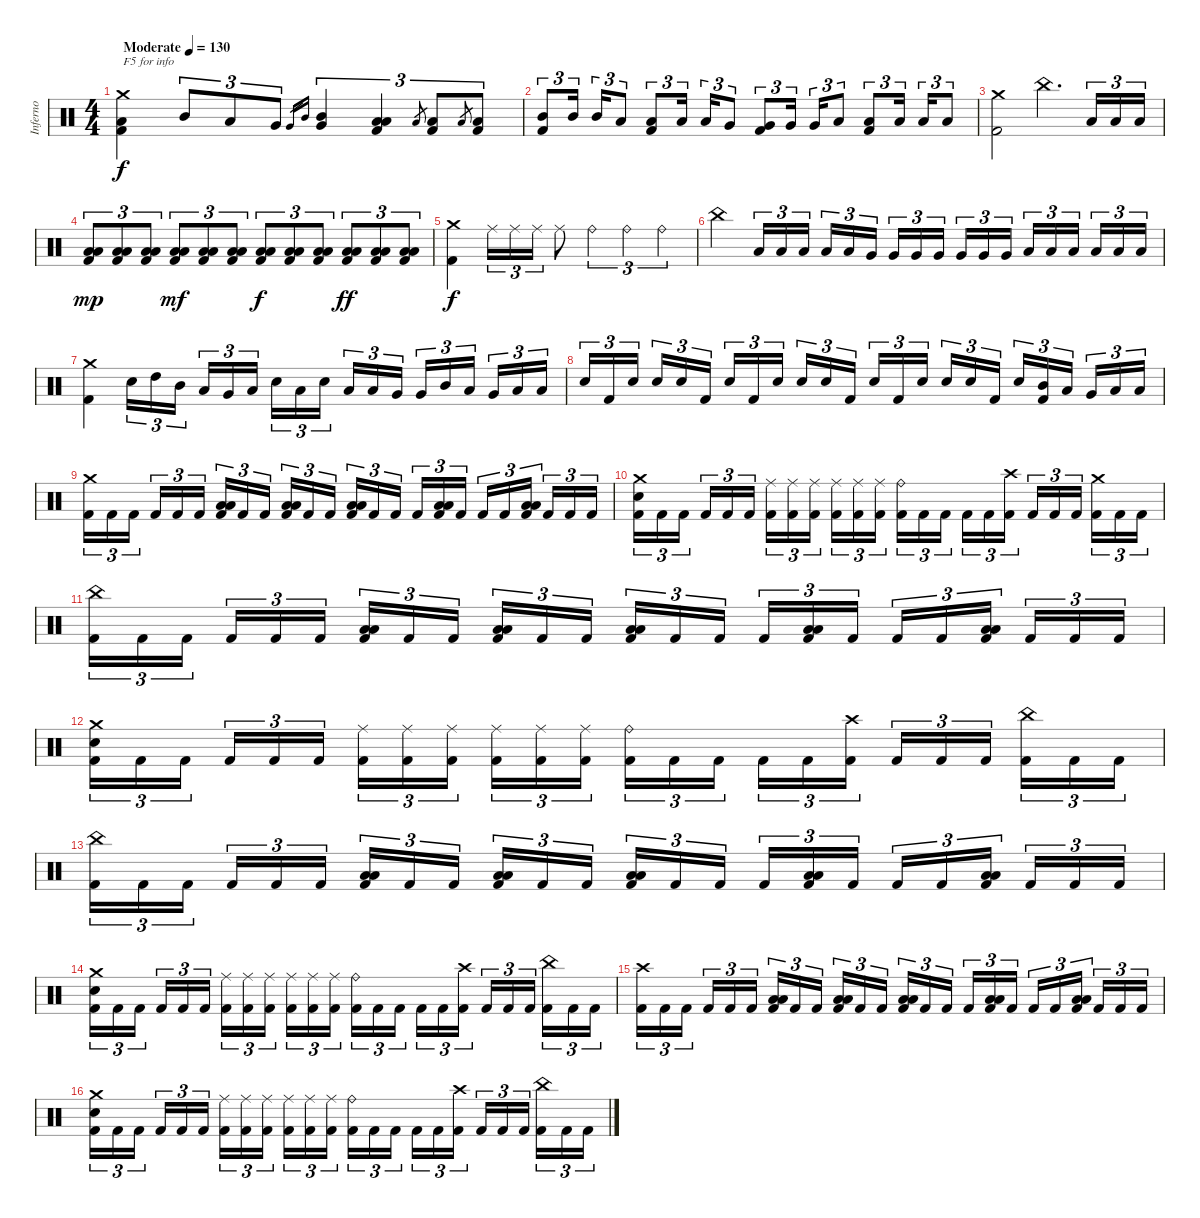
\track ("Inferno" "Inferno") {instrument percussion}
\staff {score}
\articulation defaults
\ts (4 4)
\tempo (130 "Moderate")
\clef neutral
\ks c
("Crash medium (hit)" "Low Floor Tom (hit)" "Kick (hit) 2").4{txt "F5 for info" dy f} "Mid Tom (hit)".8{tu (3 2)} "Low Tom (hit)".8{tu (3 2)} "Very Low Tom (hit)".8{tu (3 2)} "Very Low Tom (hit)".16{gr} "Mid Tom (hit)".16{gr} ("Very Low Tom (hit)" "Mid Tom (hit)").4{tu (3 2)} ("Low Floor Tom (hit)" "Low Tom (hit)" "Kick (hit) 2").4{tu (3 2)} "Low Floor Tom (hit)".8{gr} ("Low Floor Tom (hit)" "Kick (hit) 2").8{tu (3 2)} "Low Floor Tom (hit)".8{gr} ("Low Floor Tom (hit)" "Kick (hit) 2").8{tu (3 2)} |
("Mid Tom (hit)" "Kick (hit) 2").8{tu (3 2)} "Mid Tom (hit)".16{tu (3 2) beam splitsecondary} "Mid Tom (hit)".16{tu (3 2)} "Low Tom (hit)".8{tu (3 2)} ("Low Tom (hit)" "Kick (hit) 2").8{tu (3 2)} "Low Tom (hit)".16{tu (3 2) beam splitsecondary} "Low Tom (hit)".16{tu (3 2)} "Very Low Tom (hit)".8{tu (3 2)} ("Very Low Tom (hit)" "Kick (hit) 2").8{tu (3 2)} "Very Low Tom (hit)".16{tu (3 2) beam splitsecondary} "Very Low Tom (hit)".16{tu (3 2)} "Low Floor Tom (hit)".8{tu (3 2)} ("Low Floor Tom (hit)" "Kick (hit) 2").8{tu (3 2)} "Low Floor Tom (hit)".16{tu (3 2) beam splitsecondary} "Low Floor Tom (hit)".16{tu (3 2)} "Low Floor Tom (hit)".8{tu (3 2)} |
("Crash medium (hit)" "Kick (hit) 2").2 "China (hit)".4{d} "Low Tom (hit)".16{tu (3 2)} "Low Tom (hit)".16{tu (3 2)} "Low Tom (hit)".16{tu (3 2)} |
("Low Tom (hit)" "Low Floor Tom (hit)" "Kick (hit) 2").8{tu (3 2) dy mp} ("Low Tom (hit)" "Low Floor Tom (hit)" "Kick (hit) 2").8{tu (3 2)} ("Low Tom (hit)" "Low Floor Tom (hit)" "Kick (hit) 2").8{tu (3 2)} ("Low Tom (hit)" "Low Floor Tom (hit)" "Kick (hit) 2").8{tu (3 2) dy mf} ("Low Tom (hit)" "Low Floor Tom (hit)" "Kick (hit) 2").8{tu (3 2)} ("Low Tom (hit)" "Low Floor Tom (hit)" "Kick (hit) 2").8{tu (3 2)} ("Low Tom (hit)" "Low Floor Tom (hit)" "Kick (hit) 2").8{tu (3 2) dy f} ("Low Tom (hit)" "Low Floor Tom (hit)" "Kick (hit) 2").8{tu (3 2)} ("Low Tom (hit)" "Low Floor Tom (hit)" "Kick (hit) 2").8{tu (3 2)} ("Low Tom (hit)" "Low Floor Tom (hit)" "Kick (hit) 2").8{tu (3 2) dy ff} ("Low Tom (hit)" "Low Floor Tom (hit)" "Kick (hit) 2").8{tu (3 2)} ("Low Tom (hit)" "Low Floor Tom (hit)" "Kick (hit) 2").8{tu (3 2)} |
("Crash medium (hit)" "Kick (hit) 2").4{dy f} "Ride (middle)".16{tu (3 2)} "Ride (middle)".16{tu (3 2)} "Ride (middle)".16{tu (3 2)} "Ride (middle)".8 "Ride (bell)".4{tu (3 2)} "Ride (bell)".4{tu (3 2)} "Ride (bell)".4{tu (3 2)} |
"China (hit)".4 "Low Tom (hit)".16{tu (3 2)} "Low Tom (hit)".16{tu (3 2)} "Low Tom (hit)".16{tu (3 2) beam splitsecondary} "Low Tom (hit)".16{tu (3 2)} "Low Tom (hit)".16{tu (3 2)} "Very Low Tom (hit)".16{tu (3 2)} "Very Low Tom (hit)".16{tu (3 2)} "Very Low Tom (hit)".16{tu (3 2)} "Very Low Tom (hit)".16{tu (3 2) beam splitsecondary} "Very Low Tom (hit)".16{tu (3 2)} "Very Low Tom (hit)".16{tu (3 2)} "Very Low Tom (hit)".16{tu (3 2)} "Low Floor Tom (hit)".16{tu (3 2)} "Low Floor Tom (hit)".16{tu (3 2)} "Low Floor Tom (hit)".16{tu (3 2) beam splitsecondary} "Low Floor Tom (hit)".16{tu (3 2)} "Low Floor Tom (hit)".16{tu (3 2)} "Low Floor Tom (hit)".16{tu (3 2)} |
("Crash medium (hit)" "Kick (hit) 2").4 "Snare (hit) 2".16{tu (3 2)} "High Tom (hit)".16{tu (3 2)} "Mid Tom (hit)".16{tu (3 2) beam splitsecondary} "Low Tom (hit)".16{tu (3 2)} "Very Low Tom (hit)".16{tu (3 2)} "Low Floor Tom (hit)".16{tu (3 2)} "Snare (hit) 2".16{tu (3 2)} "Low Tom (hit)".16{tu (3 2)} "Snare (hit) 2".16{tu (3 2) beam splitsecondary} "Low Tom (hit)".16{tu (3 2)} "Low Tom (hit)".16{tu (3 2)} "Very Low Tom (hit)".16{tu (3 2)} "Very Low Tom (hit)".16{tu (3 2)} "Mid Tom (hit)".16{tu (3 2)} "Low Tom (hit)".16{tu (3 2) beam splitsecondary} "Very Low Tom (hit)".16{tu (3 2)} "Low Floor Tom (hit)".16{tu (3 2)} "Low Floor Tom (hit)".16{tu (3 2)} |
"Snare (hit) 2".16{tu (3 2)} "Kick (hit) 2".16{tu (3 2)} "Snare (hit) 2".16{tu (3 2) beam splitsecondary} "Snare (hit) 2".16{tu (3 2)} "Snare (hit) 2".16{tu (3 2)} "Kick (hit) 2".16{tu (3 2)} "Snare (hit) 2".16{tu (3 2)} "Kick (hit) 2".16{tu (3 2)} "Snare (hit) 2".16{tu (3 2) beam splitsecondary} "Snare (hit) 2".16{tu (3 2)} "Snare (hit) 2".16{tu (3 2)} "Kick (hit) 2".16{tu (3 2)} "Snare (hit) 2".16{tu (3 2)} "Kick (hit) 2".16{tu (3 2)} "Snare (hit) 2".16{tu (3 2) beam splitsecondary} "Snare (hit) 2".16{tu (3 2)} "Snare (hit) 2".16{tu (3 2)} "Kick (hit) 2".16{tu (3 2)} "Snare (hit) 2".16{tu (3 2)} ("Mid Tom (hit)" "Kick (hit) 2").16{tu (3 2)} "Low Tom (hit)".16{tu (3 2) beam splitsecondary} "Very Low Tom (hit)".16{tu (3 2)} "Low Floor Tom (hit)".16{tu (3 2)} "Low Floor Tom (hit)".16{tu (3 2)} |
("Crash medium (hit)" "Kick (hit) 2").16{tu (3 2)} "Kick (hit) 2".16{tu (3 2)} "Kick (hit) 2".16{tu (3 2) beam splitsecondary} "Kick (hit) 2".16{tu (3 2)} "Kick (hit) 2".16{tu (3 2)} "Kick (hit) 2".16{tu (3 2)} ("Low Tom (hit)" "Low Floor Tom (hit)" "Kick (hit) 2").16{tu (3 2)} "Kick (hit) 2".16{tu (3 2)} "Kick (hit) 2".16{tu (3 2) beam splitsecondary} ("Low Tom (hit)" "Low Floor Tom (hit)" "Kick (hit) 2").16{tu (3 2)} "Kick (hit) 2".16{tu (3 2)} "Kick (hit) 2".16{tu (3 2)} ("Low Tom (hit)" "Low Floor Tom (hit)" "Kick (hit) 2").16{tu (3 2)} "Kick (hit) 2".16{tu (3 2)} "Kick (hit) 2".16{tu (3 2) beam splitsecondary} "Kick (hit) 2".16{tu (3 2)} ("Low Tom (hit)" "Low Floor Tom (hit)" "Kick (hit) 2").16{tu (3 2)} "Kick (hit) 2".16{tu (3 2)} "Kick (hit) 2".16{tu (3 2)} "Kick (hit) 2".16{tu (3 2)} ("Low Floor Tom (hit)" "Low Floor Tom (hit)" "Kick (hit) 2").16{tu (3 2) beam splitsecondary} "Kick (hit) 2".16{tu (3 2)} "Kick (hit) 2".16{tu (3 2)} "Kick (hit) 2".16{tu (3 2)} |
("Crash medium (hit)" "Snare (hit) 2" "Kick (hit) 2").16{tu (3 2)} "Kick (hit) 2".16{tu (3 2)} "Kick (hit) 2".16{tu (3 2) beam splitsecondary} "Kick (hit) 2".16{tu (3 2)} "Kick (hit) 2".16{tu (3 2)} "Kick (hit) 2".16{tu (3 2)} ("Ride (middle)" "Kick (hit) 2").16{tu (3 2)} ("Ride (middle)" "Kick (hit) 2").16{tu (3 2)} ("Ride (middle)" "Kick (hit) 2").16{tu (3 2) beam splitsecondary} ("Ride (middle)" "Kick (hit) 2").16{tu (3 2)} ("Ride (middle)" "Kick (hit) 2").16{tu (3 2)} ("Ride (middle)" "Kick (hit) 2").16{tu (3 2)} ("Ride (bell)" "Kick (hit) 2").16{tu (3 2)} "Kick (hit) 2".16{tu (3 2)} "Kick (hit) 2".16{tu (3 2) beam splitsecondary} "Kick (hit) 2".16{tu (3 2)} "Kick (hit) 2".16{tu (3 2)} ("Crash high (hit)" "Kick (hit) 2").16{tu (3 2)} "Kick (hit) 2".16{tu (3 2)} "Kick (hit) 2".16{tu (3 2)} "Kick (hit) 2".16{tu (3 2) beam splitsecondary} ("Crash medium (hit)" "Kick (hit) 2").16{tu (3 2)} "Kick (hit) 2".16{tu (3 2)} "Kick (hit) 2".16{tu (3 2)} |
("China (hit)" "Kick (hit) 2").16{tu (3 2)} "Kick (hit) 2".16{tu (3 2)} "Kick (hit) 2".16{tu (3 2) beam splitsecondary} "Kick (hit) 2".16{tu (3 2)} "Kick (hit) 2".16{tu (3 2)} "Kick (hit) 2".16{tu (3 2)} ("Low Tom (hit)" "Low Floor Tom (hit)" "Kick (hit) 2").16{tu (3 2)} "Kick (hit) 2".16{tu (3 2)} "Kick (hit) 2".16{tu (3 2) beam splitsecondary} ("Low Tom (hit)" "Low Floor Tom (hit)" "Kick (hit) 2").16{tu (3 2)} "Kick (hit) 2".16{tu (3 2)} "Kick (hit) 2".16{tu (3 2)} ("Low Tom (hit)" "Low Floor Tom (hit)" "Kick (hit) 2").16{tu (3 2)} "Kick (hit) 2".16{tu (3 2)} "Kick (hit) 2".16{tu (3 2) beam splitsecondary} "Kick (hit) 2".16{tu (3 2)} ("Low Tom (hit)" "Low Floor Tom (hit)" "Kick (hit) 2").16{tu (3 2)} "Kick (hit) 2".16{tu (3 2)} "Kick (hit) 2".16{tu (3 2)} "Kick (hit) 2".16{tu (3 2)} ("Low Floor Tom (hit)" "Low Floor Tom (hit)" "Kick (hit) 2").16{tu (3 2) beam splitsecondary} "Kick (hit) 2".16{tu (3 2)} "Kick (hit) 2".16{tu (3 2)} "Kick (hit) 2".16{tu (3 2)} |
("Crash medium (hit)" "Snare (hit) 2" "Kick (hit) 2").16{tu (3 2)} "Kick (hit) 2".16{tu (3 2)} "Kick (hit) 2".16{tu (3 2) beam splitsecondary} "Kick (hit) 2".16{tu (3 2)} "Kick (hit) 2".16{tu (3 2)} "Kick (hit) 2".16{tu (3 2)} ("Ride (middle)" "Kick (hit) 2").16{tu (3 2)} ("Ride (middle)" "Kick (hit) 2").16{tu (3 2)} ("Ride (middle)" "Kick (hit) 2").16{tu (3 2) beam splitsecondary} ("Ride (middle)" "Kick (hit) 2").16{tu (3 2)} ("Ride (middle)" "Kick (hit) 2").16{tu (3 2)} ("Ride (middle)" "Kick (hit) 2").16{tu (3 2)} ("Ride (bell)" "Kick (hit) 2").16{tu (3 2)} "Kick (hit) 2".16{tu (3 2)} "Kick (hit) 2".16{tu (3 2) beam splitsecondary} "Kick (hit) 2".16{tu (3 2)} "Kick (hit) 2".16{tu (3 2)} ("Crash high (hit)" "Kick (hit) 2").16{tu (3 2)} "Kick (hit) 2".16{tu (3 2)} "Kick (hit) 2".16{tu (3 2)} "Kick (hit) 2".16{tu (3 2) beam splitsecondary} ("China (hit)" "Kick (hit) 2").16{tu (3 2)} "Kick (hit) 2".16{tu (3 2)} "Kick (hit) 2".16{tu (3 2)} |
("China (hit)" "Kick (hit) 2").16{tu (3 2)} "Kick (hit) 2".16{tu (3 2)} "Kick (hit) 2".16{tu (3 2) beam splitsecondary} "Kick (hit) 2".16{tu (3 2)} "Kick (hit) 2".16{tu (3 2)} "Kick (hit) 2".16{tu (3 2)} ("Low Tom (hit)" "Low Floor Tom (hit)" "Kick (hit) 2").16{tu (3 2)} "Kick (hit) 2".16{tu (3 2)} "Kick (hit) 2".16{tu (3 2) beam splitsecondary} ("Low Tom (hit)" "Low Floor Tom (hit)" "Kick (hit) 2").16{tu (3 2)} "Kick (hit) 2".16{tu (3 2)} "Kick (hit) 2".16{tu (3 2)} ("Low Tom (hit)" "Low Floor Tom (hit)" "Kick (hit) 2").16{tu (3 2)} "Kick (hit) 2".16{tu (3 2)} "Kick (hit) 2".16{tu (3 2) beam splitsecondary} "Kick (hit) 2".16{tu (3 2)} ("Low Tom (hit)" "Low Floor Tom (hit)" "Kick (hit) 2").16{tu (3 2)} "Kick (hit) 2".16{tu (3 2)} "Kick (hit) 2".16{tu (3 2)} "Kick (hit) 2".16{tu (3 2)} ("Low Floor Tom (hit)" "Low Floor Tom (hit)" "Kick (hit) 2").16{tu (3 2) beam splitsecondary} "Kick (hit) 2".16{tu (3 2)} "Kick (hit) 2".16{tu (3 2)} "Kick (hit) 2".16{tu (3 2)} |
("Crash medium (hit)" "Snare (hit) 2" "Kick (hit) 2").16{tu (3 2)} "Kick (hit) 2".16{tu (3 2)} "Kick (hit) 2".16{tu (3 2) beam splitsecondary} "Kick (hit) 2".16{tu (3 2)} "Kick (hit) 2".16{tu (3 2)} "Kick (hit) 2".16{tu (3 2)} ("Ride (middle)" "Kick (hit) 2").16{tu (3 2)} ("Ride (middle)" "Kick (hit) 2").16{tu (3 2)} ("Ride (middle)" "Kick (hit) 2").16{tu (3 2) beam splitsecondary} ("Ride (middle)" "Kick (hit) 2").16{tu (3 2)} ("Ride (middle)" "Kick (hit) 2").16{tu (3 2)} ("Ride (middle)" "Kick (hit) 2").16{tu (3 2)} ("Ride (bell)" "Kick (hit) 2").16{tu (3 2)} "Kick (hit) 2".16{tu (3 2)} "Kick (hit) 2".16{tu (3 2) beam splitsecondary} "Kick (hit) 2".16{tu (3 2)} "Kick (hit) 2".16{tu (3 2)} ("Crash high (hit)" "Kick (hit) 2").16{tu (3 2)} "Kick (hit) 2".16{tu (3 2)} "Kick (hit) 2".16{tu (3 2)} "Kick (hit) 2".16{tu (3 2) beam splitsecondary} ("China (hit)" "Kick (hit) 2").16{tu (3 2)} "Kick (hit) 2".16{tu (3 2)} "Kick (hit) 2".16{tu (3 2)} |
("Crash high (hit)" "Kick (hit) 2").16{tu (3 2)} "Kick (hit) 2".16{tu (3 2)} "Kick (hit) 2".16{tu (3 2) beam splitsecondary} "Kick (hit) 2".16{tu (3 2)} "Kick (hit) 2".16{tu (3 2)} "Kick (hit) 2".16{tu (3 2)} ("Low Tom (hit)" "Low Floor Tom (hit)" "Kick (hit) 2").16{tu (3 2)} "Kick (hit) 2".16{tu (3 2)} "Kick (hit) 2".16{tu (3 2) beam splitsecondary} ("Low Tom (hit)" "Low Floor Tom (hit)" "Kick (hit) 2").16{tu (3 2)} "Kick (hit) 2".16{tu (3 2)} "Kick (hit) 2".16{tu (3 2)} ("Low Tom (hit)" "Low Floor Tom (hit)" "Kick (hit) 2").16{tu (3 2)} "Kick (hit) 2".16{tu (3 2)} "Kick (hit) 2".16{tu (3 2) beam splitsecondary} "Kick (hit) 2".16{tu (3 2)} ("Low Tom (hit)" "Low Floor Tom (hit)" "Kick (hit) 2").16{tu (3 2)} "Kick (hit) 2".16{tu (3 2)} "Kick (hit) 2".16{tu (3 2)} "Kick (hit) 2".16{tu (3 2)} ("Low Floor Tom (hit)" "Low Floor Tom (hit)" "Kick (hit) 2").16{tu (3 2) beam splitsecondary} "Kick (hit) 2".16{tu (3 2)} "Kick (hit) 2".16{tu (3 2)} "Kick (hit) 2".16{tu (3 2)} |
("Crash medium (hit)" "Snare (hit) 2" "Kick (hit) 2").16{tu (3 2)} "Kick (hit) 2".16{tu (3 2)} "Kick (hit) 2".16{tu (3 2) beam splitsecondary} "Kick (hit) 2".16{tu (3 2)} "Kick (hit) 2".16{tu (3 2)} "Kick (hit) 2".16{tu (3 2)} ("Ride (middle)" "Kick (hit) 2").16{tu (3 2)} ("Ride (middle)" "Kick (hit) 2").16{tu (3 2)} ("Ride (middle)" "Kick (hit) 2").16{tu (3 2) beam splitsecondary} ("Ride (middle)" "Kick (hit) 2").16{tu (3 2)} ("Ride (middle)" "Kick (hit) 2").16{tu (3 2)} ("Ride (middle)" "Kick (hit) 2").16{tu (3 2)} ("Ride (bell)" "Kick (hit) 2").16{tu (3 2)} "Kick (hit) 2".16{tu (3 2)} "Kick (hit) 2".16{tu (3 2) beam splitsecondary} "Kick (hit) 2".16{tu (3 2)} "Kick (hit) 2".16{tu (3 2)} ("Crash high (hit)" "Kick (hit) 2").16{tu (3 2)} "Kick (hit) 2".16{tu (3 2)} "Kick (hit) 2".16{tu (3 2)} "Kick (hit) 2".16{tu (3 2) beam splitsecondary} ("China (hit)" "Kick (hit) 2").16{tu (3 2)} "Kick (hit) 2".16{tu (3 2)} "Kick (hit) 2".16{tu (3 2)}
